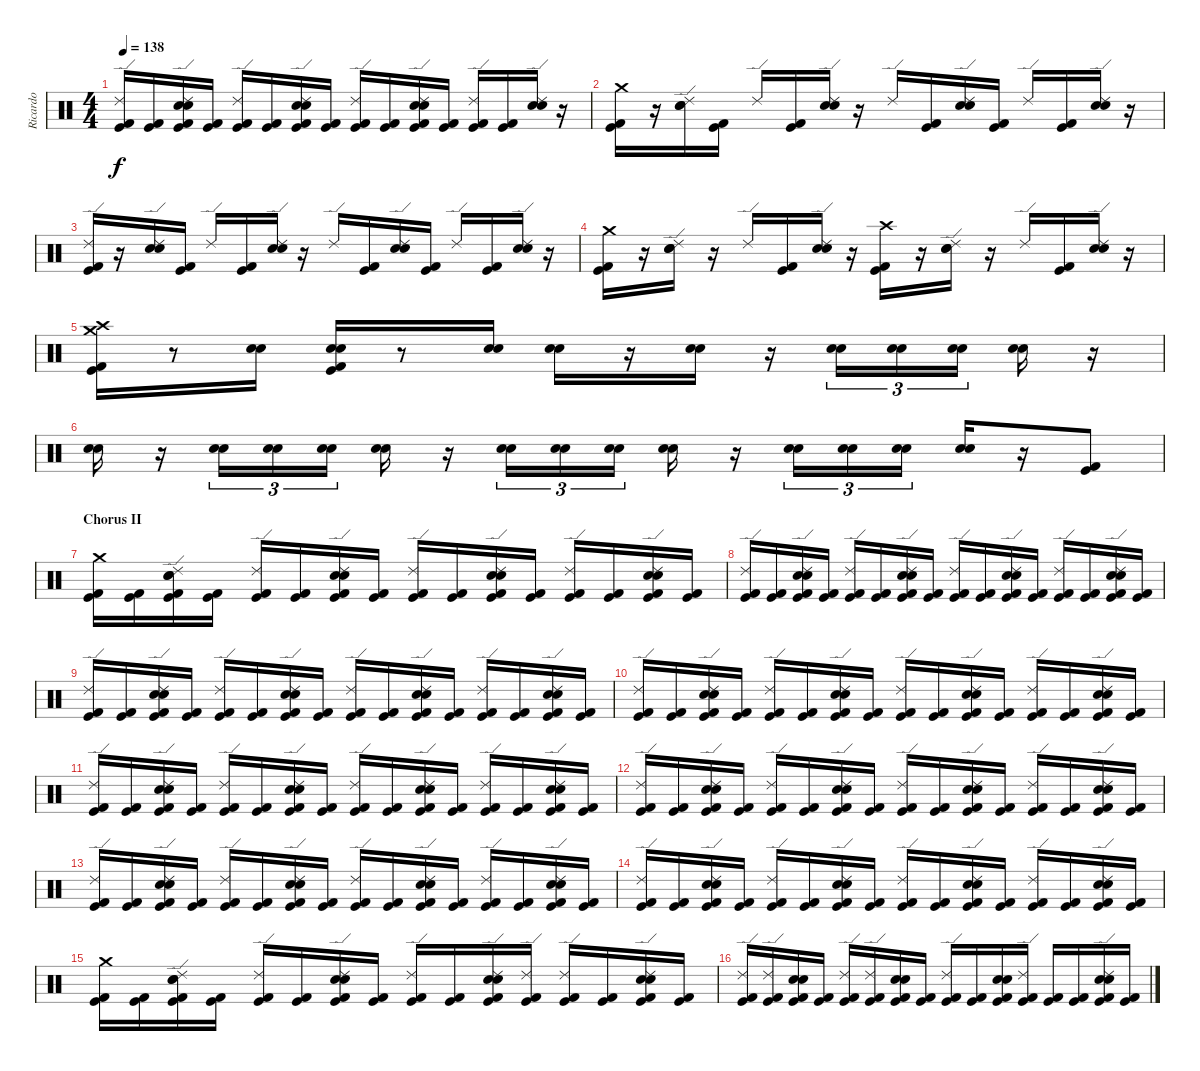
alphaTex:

\track ("Ricardo" "Ricardo") {instrument percussion}
\staff {score}
\articulation defaults
\ts (4 4)
\tempo 138
\clef neutral
\ks c
("Ride (edge) 2" "Kick (hit) 2" "Kick (hit)").16{dy f} ("Kick (hit) 2" "Kick (hit)").16 ("Electric Snare (hit)" "Snare (hit) 2" "Ride (edge) 2" "Kick (hit) 2" "Kick (hit)").16 ("Kick (hit) 2" "Kick (hit)").16 ("Ride (edge) 2" "Kick (hit) 2" "Kick (hit)").16 ("Kick (hit) 2" "Kick (hit)").16 ("Electric Snare (hit)" "Snare (hit) 2" "Ride (edge) 2" "Kick (hit) 2" "Kick (hit)").16 ("Kick (hit) 2" "Kick (hit)").16 ("Ride (edge) 2" "Kick (hit) 2" "Kick (hit)").16 ("Kick (hit) 2" "Kick (hit)").16 ("Electric Snare (hit)" "Snare (hit) 2" "Ride (edge) 2" "Kick (hit) 2" "Kick (hit)").16 ("Kick (hit) 2" "Kick (hit)").16 ("Ride (edge) 2" "Kick (hit) 2" "Kick (hit)").16 ("Kick (hit) 2" "Kick (hit)").16 ("Ride (edge) 2" "Electric Snare (hit)" "Snare (hit) 2").16 r.16 |
("Crash medium (hit)" "Kick (hit) 2" "Kick (hit)").16 r.16 ("Electric Snare (hit)" "Snare (hit) 2" "Ride (edge) 2").16 ("Kick (hit) 2" "Kick (hit)").16 "Ride (edge) 2".16 ("Kick (hit) 2" "Kick (hit)").16 ("Electric Snare (hit)" "Snare (hit) 2" "Ride (edge) 2").16 r.16 "Ride (edge) 2".16 ("Kick (hit) 2" "Kick (hit)").16 ("Electric Snare (hit)" "Snare (hit) 2" "Ride (edge) 2").16 ("Kick (hit) 2" "Kick (hit)").16 "Ride (edge) 2".16 ("Kick (hit) 2" "Kick (hit)").16 ("Electric Snare (hit)" "Snare (hit) 2" "Ride (edge) 2").16 r.16 |
("Ride (edge) 2" "Kick (hit) 2" "Kick (hit)").16 r.16 ("Ride (edge) 2" "Electric Snare (hit)" "Snare (hit) 2").16 ("Kick (hit) 2" "Kick (hit)").16 "Ride (edge) 2".16 ("Kick (hit) 2" "Kick (hit)").16 ("Electric Snare (hit)" "Snare (hit) 2" "Ride (edge) 2").16 r.16 "Ride (edge) 2".16 ("Kick (hit) 2" "Kick (hit)").16 ("Electric Snare (hit)" "Snare (hit) 2" "Ride (edge) 2").16 ("Kick (hit) 2" "Kick (hit)").16 "Ride (edge) 2".16 ("Kick (hit) 2" "Kick (hit)").16 ("Electric Snare (hit)" "Snare (hit) 2" "Ride (edge) 2").16 r.16 |
("Kick (hit) 2" "Kick (hit)" "Crash medium (hit)").16 r.16 ("Electric Snare (hit)" "Snare (hit) 2" "Ride (edge) 2").16 r.16 "Ride (edge) 2".16 ("Kick (hit) 2" "Kick (hit)").16 ("Electric Snare (hit)" "Snare (hit) 2" "Ride (edge) 2").16 r.16 ("Crash high (hit)" "Kick (hit) 2" "Kick (hit)").16 r.16 ("Ride (edge) 2" "Electric Snare (hit)" "Snare (hit) 2").16 r.16 "Ride (edge) 2".16 ("Kick (hit)" "Kick (hit) 2").16 ("Ride (edge) 2" "Electric Snare (hit)" "Snare (hit) 2").16 r.16 |
("Crash high (hit)" "Crash medium (hit)" "Kick (hit) 2" "Kick (hit)").16 r.8 ("Electric Snare (hit)" "Snare (hit) 2").16 ("Electric Snare (hit)" "Snare (hit) 2" "Kick (hit) 2" "Kick (hit)").16 r.8 ("Electric Snare (hit)" "Snare (hit) 2").16 ("Electric Snare (hit)" "Snare (hit) 2").16 r.16 ("Electric Snare (hit)" "Snare (hit) 2").16 r.16 ("Electric Snare (hit)" "Snare (hit) 2").16{tu (3 2)} ("Electric Snare (hit)" "Snare (hit) 2").16{tu (3 2)} ("Electric Snare (hit)" "Snare (hit) 2").16{tu (3 2)} ("Electric Snare (hit)" "Snare (hit) 2").16 r.16 |
("Electric Snare (hit)" "Snare (hit) 2").16 r.16 ("Electric Snare (hit)" "Snare (hit) 2").16{tu (3 2)} ("Electric Snare (hit)" "Snare (hit) 2").16{tu (3 2)} ("Electric Snare (hit)" "Snare (hit) 2").16{tu (3 2)} ("Electric Snare (hit)" "Snare (hit) 2").16 r.16 ("Electric Snare (hit)" "Snare (hit) 2").16{tu (3 2)} ("Electric Snare (hit)" "Snare (hit) 2").16{tu (3 2)} ("Electric Snare (hit)" "Snare (hit) 2").16{tu (3 2)} ("Electric Snare (hit)" "Snare (hit) 2").16 r.16 ("Electric Snare (hit)" "Snare (hit) 2").16{tu (3 2)} ("Electric Snare (hit)" "Snare (hit) 2").16{tu (3 2)} ("Electric Snare (hit)" "Snare (hit) 2").16{tu (3 2)} ("Electric Snare (hit)" "Snare (hit) 2").16 r.16 ("Kick (hit) 2" "Kick (hit)").8 |
\section ("" "Chorus II")
("Crash medium (hit)" "Kick (hit) 2" "Kick (hit)").16 ("Kick (hit) 2" "Kick (hit)").16 ("Electric Snare (hit)" "Snare (hit) 2" "Ride (edge) 2" "Kick (hit) 2" "Kick (hit)").16 ("Kick (hit) 2" "Kick (hit)").16 ("Ride (edge) 2" "Kick (hit) 2" "Kick (hit)").16 ("Kick (hit) 2" "Kick (hit)").16 ("Electric Snare (hit)" "Snare (hit) 2" "Ride (edge) 2" "Kick (hit) 2" "Kick (hit)").16 ("Kick (hit) 2" "Kick (hit)").16 ("Ride (edge) 2" "Kick (hit) 2" "Kick (hit)").16 ("Kick (hit) 2" "Kick (hit)").16 ("Electric Snare (hit)" "Snare (hit) 2" "Ride (edge) 2" "Kick (hit) 2" "Kick (hit)").16 ("Kick (hit) 2" "Kick (hit)").16 ("Ride (edge) 2" "Kick (hit) 2" "Kick (hit)").16 ("Kick (hit) 2" "Kick (hit)").16 ("Electric Snare (hit)" "Snare (hit) 2" "Ride (edge) 2" "Kick (hit) 2" "Kick (hit)").16 ("Kick (hit) 2" "Kick (hit)").16 |
("Ride (edge) 2" "Kick (hit) 2" "Kick (hit)").16 ("Kick (hit) 2" "Kick (hit)").16 ("Electric Snare (hit)" "Snare (hit) 2" "Ride (edge) 2" "Kick (hit) 2" "Kick (hit)").16 ("Kick (hit) 2" "Kick (hit)").16 ("Ride (edge) 2" "Kick (hit) 2" "Kick (hit)").16 ("Kick (hit) 2" "Kick (hit)").16 ("Electric Snare (hit)" "Snare (hit) 2" "Ride (edge) 2" "Kick (hit) 2" "Kick (hit)").16 ("Kick (hit) 2" "Kick (hit)").16 ("Ride (edge) 2" "Kick (hit) 2" "Kick (hit)").16 ("Kick (hit) 2" "Kick (hit)").16 ("Electric Snare (hit)" "Snare (hit) 2" "Ride (edge) 2" "Kick (hit) 2" "Kick (hit)").16 ("Kick (hit) 2" "Kick (hit)").16 ("Ride (edge) 2" "Kick (hit) 2" "Kick (hit)").16 ("Kick (hit) 2" "Kick (hit)").16 ("Electric Snare (hit)" "Snare (hit) 2" "Ride (edge) 2" "Kick (hit) 2" "Kick (hit)").16 ("Kick (hit) 2" "Kick (hit)").16 |
("Ride (edge) 2" "Kick (hit) 2" "Kick (hit)").16 ("Kick (hit) 2" "Kick (hit)").16 ("Electric Snare (hit)" "Snare (hit) 2" "Ride (edge) 2" "Kick (hit) 2" "Kick (hit)").16 ("Kick (hit) 2" "Kick (hit)").16 ("Ride (edge) 2" "Kick (hit) 2" "Kick (hit)").16 ("Kick (hit) 2" "Kick (hit)").16 ("Electric Snare (hit)" "Snare (hit) 2" "Ride (edge) 2" "Kick (hit) 2" "Kick (hit)").16 ("Kick (hit) 2" "Kick (hit)").16 ("Ride (edge) 2" "Kick (hit) 2" "Kick (hit)").16 ("Kick (hit) 2" "Kick (hit)").16 ("Electric Snare (hit)" "Snare (hit) 2" "Ride (edge) 2" "Kick (hit) 2" "Kick (hit)").16 ("Kick (hit) 2" "Kick (hit)").16 ("Ride (edge) 2" "Kick (hit) 2" "Kick (hit)").16 ("Kick (hit) 2" "Kick (hit)").16 ("Electric Snare (hit)" "Snare (hit) 2" "Ride (edge) 2" "Kick (hit) 2" "Kick (hit)").16 ("Kick (hit) 2" "Kick (hit)").16 |
("Ride (edge) 2" "Kick (hit) 2" "Kick (hit)").16 ("Kick (hit) 2" "Kick (hit)").16 ("Electric Snare (hit)" "Snare (hit) 2" "Ride (edge) 2" "Kick (hit) 2" "Kick (hit)").16 ("Kick (hit) 2" "Kick (hit)").16 ("Ride (edge) 2" "Kick (hit) 2" "Kick (hit)").16 ("Kick (hit) 2" "Kick (hit)").16 ("Electric Snare (hit)" "Snare (hit) 2" "Ride (edge) 2" "Kick (hit) 2" "Kick (hit)").16 ("Kick (hit) 2" "Kick (hit)").16 ("Ride (edge) 2" "Kick (hit) 2" "Kick (hit)").16 ("Kick (hit) 2" "Kick (hit)").16 ("Electric Snare (hit)" "Snare (hit) 2" "Ride (edge) 2" "Kick (hit) 2" "Kick (hit)").16 ("Kick (hit) 2" "Kick (hit)").16 ("Ride (edge) 2" "Kick (hit) 2" "Kick (hit)").16 ("Kick (hit) 2" "Kick (hit)").16 ("Electric Snare (hit)" "Snare (hit) 2" "Ride (edge) 2" "Kick (hit) 2" "Kick (hit)").16 ("Kick (hit) 2" "Kick (hit)").16 |
("Ride (edge) 2" "Kick (hit) 2" "Kick (hit)").16 ("Kick (hit) 2" "Kick (hit)").16 ("Electric Snare (hit)" "Snare (hit) 2" "Ride (edge) 2" "Kick (hit) 2" "Kick (hit)").16 ("Kick (hit) 2" "Kick (hit)").16 ("Ride (edge) 2" "Kick (hit) 2" "Kick (hit)").16 ("Kick (hit) 2" "Kick (hit)").16 ("Electric Snare (hit)" "Snare (hit) 2" "Ride (edge) 2" "Kick (hit) 2" "Kick (hit)").16 ("Kick (hit) 2" "Kick (hit)").16 ("Ride (edge) 2" "Kick (hit) 2" "Kick (hit)").16 ("Kick (hit) 2" "Kick (hit)").16 ("Electric Snare (hit)" "Snare (hit) 2" "Ride (edge) 2" "Kick (hit) 2" "Kick (hit)").16 ("Kick (hit) 2" "Kick (hit)").16 ("Ride (edge) 2" "Kick (hit) 2" "Kick (hit)").16 ("Kick (hit) 2" "Kick (hit)").16 ("Electric Snare (hit)" "Snare (hit) 2" "Ride (edge) 2" "Kick (hit) 2" "Kick (hit)").16 ("Kick (hit) 2" "Kick (hit)").16 |
("Ride (edge) 2" "Kick (hit) 2" "Kick (hit)").16 ("Kick (hit) 2" "Kick (hit)").16 ("Electric Snare (hit)" "Snare (hit) 2" "Ride (edge) 2" "Kick (hit) 2" "Kick (hit)").16 ("Kick (hit) 2" "Kick (hit)").16 ("Ride (edge) 2" "Kick (hit) 2" "Kick (hit)").16 ("Kick (hit) 2" "Kick (hit)").16 ("Electric Snare (hit)" "Snare (hit) 2" "Ride (edge) 2" "Kick (hit) 2" "Kick (hit)").16 ("Kick (hit) 2" "Kick (hit)").16 ("Ride (edge) 2" "Kick (hit) 2" "Kick (hit)").16 ("Kick (hit) 2" "Kick (hit)").16 ("Electric Snare (hit)" "Snare (hit) 2" "Ride (edge) 2" "Kick (hit) 2" "Kick (hit)").16 ("Kick (hit) 2" "Kick (hit)").16 ("Ride (edge) 2" "Kick (hit) 2" "Kick (hit)").16 ("Kick (hit) 2" "Kick (hit)").16 ("Electric Snare (hit)" "Snare (hit) 2" "Ride (edge) 2" "Kick (hit) 2" "Kick (hit)").16 ("Kick (hit) 2" "Kick (hit)").16 |
("Ride (edge) 2" "Kick (hit) 2" "Kick (hit)").16 ("Kick (hit) 2" "Kick (hit)").16 ("Electric Snare (hit)" "Snare (hit) 2" "Ride (edge) 2" "Kick (hit) 2" "Kick (hit)").16 ("Kick (hit) 2" "Kick (hit)").16 ("Ride (edge) 2" "Kick (hit) 2" "Kick (hit)").16 ("Kick (hit) 2" "Kick (hit)").16 ("Electric Snare (hit)" "Snare (hit) 2" "Ride (edge) 2" "Kick (hit) 2" "Kick (hit)").16 ("Kick (hit) 2" "Kick (hit)").16 ("Ride (edge) 2" "Kick (hit) 2" "Kick (hit)").16 ("Kick (hit) 2" "Kick (hit)").16 ("Electric Snare (hit)" "Snare (hit) 2" "Ride (edge) 2" "Kick (hit) 2" "Kick (hit)").16 ("Kick (hit) 2" "Kick (hit)").16 ("Ride (edge) 2" "Kick (hit) 2" "Kick (hit)").16 ("Kick (hit) 2" "Kick (hit)").16 ("Electric Snare (hit)" "Snare (hit) 2" "Ride (edge) 2" "Kick (hit) 2" "Kick (hit)").16 ("Kick (hit) 2" "Kick (hit)").16 |
("Ride (edge) 2" "Kick (hit) 2" "Kick (hit)").16 ("Kick (hit) 2" "Kick (hit)").16 ("Electric Snare (hit)" "Snare (hit) 2" "Ride (edge) 2" "Kick (hit) 2" "Kick (hit)").16 ("Kick (hit) 2" "Kick (hit)").16 ("Ride (edge) 2" "Kick (hit) 2" "Kick (hit)").16 ("Kick (hit) 2" "Kick (hit)").16 ("Electric Snare (hit)" "Snare (hit) 2" "Ride (edge) 2" "Kick (hit) 2" "Kick (hit)").16 ("Kick (hit) 2" "Kick (hit)").16 ("Ride (edge) 2" "Kick (hit) 2" "Kick (hit)").16 ("Kick (hit) 2" "Kick (hit)").16 ("Electric Snare (hit)" "Snare (hit) 2" "Ride (edge) 2" "Kick (hit) 2" "Kick (hit)").16 ("Kick (hit) 2" "Kick (hit)").16 ("Ride (edge) 2" "Kick (hit) 2" "Kick (hit)").16 ("Kick (hit) 2" "Kick (hit)").16 ("Electric Snare (hit)" "Snare (hit) 2" "Ride (edge) 2" "Kick (hit) 2" "Kick (hit)").16 ("Kick (hit) 2" "Kick (hit)").16 |
("Crash medium (hit)" "Kick (hit) 2" "Kick (hit)").16 ("Kick (hit) 2" "Kick (hit)").16 ("Electric Snare (hit)" "Snare (hit) 2" "Ride (edge) 2" "Kick (hit) 2" "Kick (hit)").16 ("Kick (hit) 2" "Kick (hit)").16 ("Ride (edge) 2" "Kick (hit) 2" "Kick (hit)").16 ("Kick (hit) 2" "Kick (hit)").16 ("Electric Snare (hit)" "Snare (hit) 2" "Ride (edge) 2" "Kick (hit) 2" "Kick (hit)").16 ("Kick (hit) 2" "Kick (hit)").16 ("Ride (edge) 2" "Kick (hit) 2" "Kick (hit)").16 ("Kick (hit) 2" "Kick (hit)").16 ("Electric Snare (hit)" "Snare (hit) 2" "Ride (edge) 2" "Kick (hit) 2" "Kick (hit)").16 ("Ride (edge) 2" "Kick (hit) 2" "Kick (hit)").16 ("Ride (edge) 2" "Kick (hit) 2" "Kick (hit)").16 ("Kick (hit) 2" "Kick (hit)").16 ("Electric Snare (hit)" "Snare (hit) 2" "Ride (edge) 2" "Kick (hit) 2" "Kick (hit)").16 ("Kick (hit) 2" "Kick (hit)").16 |
("Ride (edge) 2" "Kick (hit) 2" "Kick (hit)").16 ("Ride (edge) 2" "Kick (hit) 2" "Kick (hit)").16 ("Electric Snare (hit)" "Snare (hit) 2" "Kick (hit) 2" "Kick (hit)").16 ("Kick (hit) 2" "Kick (hit)").16 ("Ride (edge) 2" "Kick (hit) 2" "Kick (hit)").16 ("Ride (edge) 2" "Kick (hit) 2" "Kick (hit)").16 ("Electric Snare (hit)" "Snare (hit) 2" "Kick (hit) 2" "Kick (hit)").16 ("Kick (hit) 2" "Kick (hit)").16 ("Ride (edge) 2" "Kick (hit) 2" "Kick (hit)").16 ("Kick (hit) 2" "Kick (hit)").16 ("Electric Snare (hit)" "Snare (hit) 2" "Kick (hit) 2" "Kick (hit)").16 ("Ride (edge) 2" "Kick (hit) 2" "Kick (hit)").16 ("Kick (hit) 2" "Kick (hit)").16 ("Kick (hit) 2" "Kick (hit)").16 ("Electric Snare (hit)" "Snare (hit) 2" "Ride (edge) 2" "Kick (hit) 2" "Kick (hit)").16 ("Kick (hit) 2" "Kick (hit)").16
